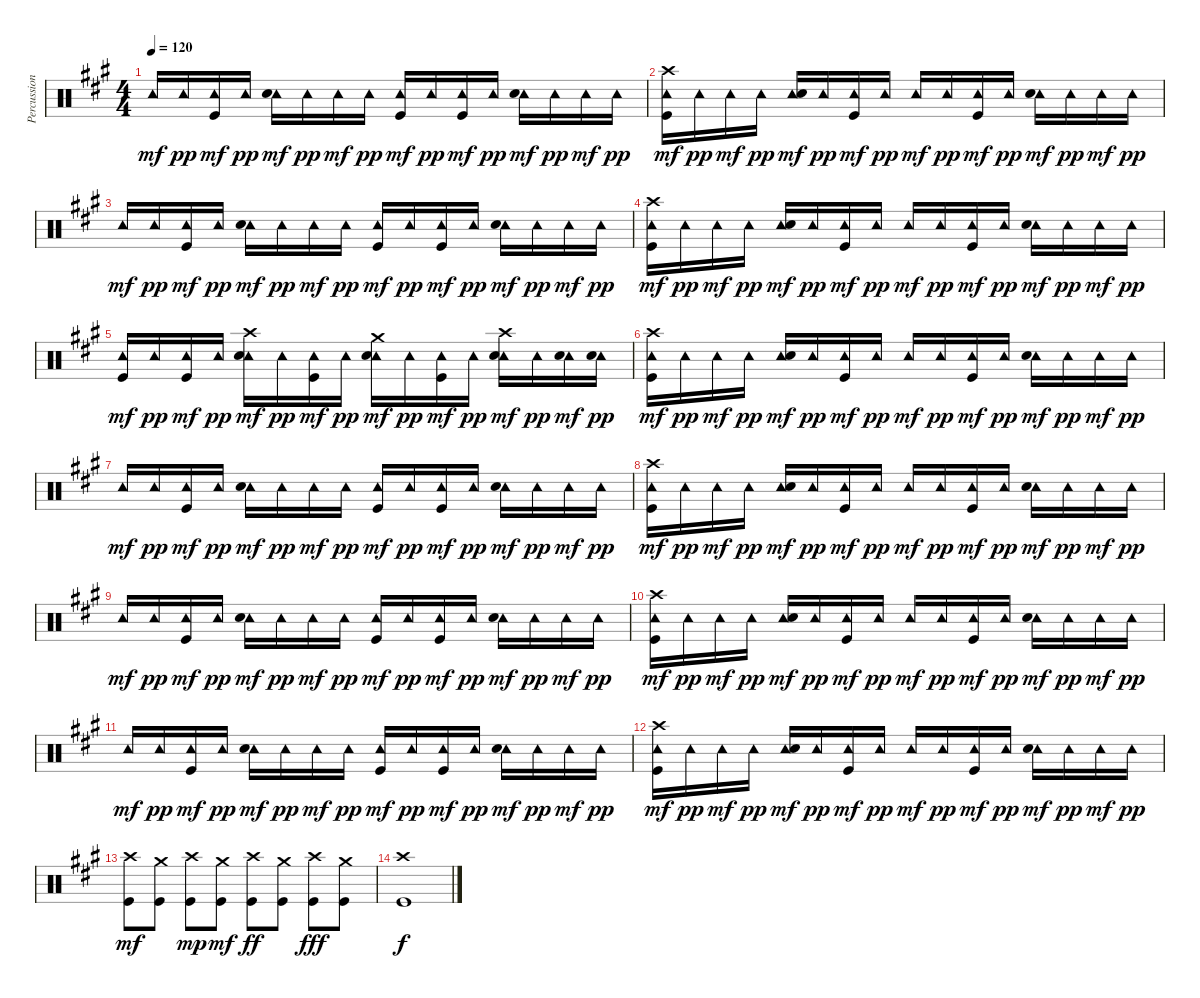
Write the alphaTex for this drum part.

\track ("Percussion" "Percussion") {instrument percussion}
\staff {score}
\articulation defaults
\ts (4 4)
\tempo 120
\clef neutral
\ks a "Tambourine (hit)".16{dy mf} "Tambourine (hit)".16{dy pp}
("Tambourine (hit)" "Kick (hit)").16{dy mf} "Tambourine (hit)".16{dy pp} ("Tambourine (hit)" "Electric Snare (hit)").16{dy mf} "Tambourine (hit)".16{dy pp} "Tambourine (hit)".16{dy mf} "Tambourine (hit)".16{dy pp} ("Tambourine (hit)" "Kick (hit)").16{dy mf} "Tambourine (hit)".16{dy pp} ("Tambourine (hit)" "Kick (hit)").16{dy mf} "Tambourine (hit)".16{dy pp} ("Tambourine (hit)" "Electric Snare (hit)").16{dy mf} "Tambourine (hit)".16{dy pp} "Tambourine (hit)".16{dy mf} "Tambourine (hit)".16{dy pp} |
("Crash high (hit)" "Tambourine (hit)" "Kick (hit)").16{dy mf} "Tambourine (hit)".16{dy pp} "Tambourine (hit)".16{dy mf} "Tambourine (hit)".16{dy pp} ("Tambourine (hit)" "Electric Snare (hit)").16{dy mf} "Tambourine (hit)".16{dy pp} ("Tambourine (hit)" "Kick (hit)").16{dy mf} "Tambourine (hit)".16{dy pp} "Tambourine (hit)".16{dy mf} "Tambourine (hit)".16{dy pp} ("Tambourine (hit)" "Kick (hit)").16{dy mf} "Tambourine (hit)".16{dy pp} ("Tambourine (hit)" "Electric Snare (hit)").16{dy mf} "Tambourine (hit)".16{dy pp} "Tambourine (hit)".16{dy mf} "Tambourine (hit)".16{dy pp} |
"Tambourine (hit)".16{dy mf} "Tambourine (hit)".16{dy pp} ("Tambourine (hit)" "Kick (hit)").16{dy mf} "Tambourine (hit)".16{dy pp} ("Tambourine (hit)" "Electric Snare (hit)").16{dy mf} "Tambourine (hit)".16{dy pp} "Tambourine (hit)".16{dy mf} "Tambourine (hit)".16{dy pp} ("Tambourine (hit)" "Kick (hit)").16{dy mf} "Tambourine (hit)".16{dy pp} ("Tambourine (hit)" "Kick (hit)").16{dy mf} "Tambourine (hit)".16{dy pp} ("Tambourine (hit)" "Electric Snare (hit)").16{dy mf} "Tambourine (hit)".16{dy pp} "Tambourine (hit)".16{dy mf} "Tambourine (hit)".16{dy pp} |
("Crash high (hit)" "Tambourine (hit)" "Kick (hit)").16{dy mf} "Tambourine (hit)".16{dy pp} "Tambourine (hit)".16{dy mf} "Tambourine (hit)".16{dy pp} ("Tambourine (hit)" "Electric Snare (hit)").16{dy mf} "Tambourine (hit)".16{dy pp} ("Tambourine (hit)" "Kick (hit)").16{dy mf} "Tambourine (hit)".16{dy pp} "Tambourine (hit)".16{dy mf} "Tambourine (hit)".16{dy pp} ("Tambourine (hit)" "Kick (hit)").16{dy mf} "Tambourine (hit)".16{dy pp} ("Tambourine (hit)" "Electric Snare (hit)").16{dy mf} "Tambourine (hit)".16{dy pp} "Tambourine (hit)".16{dy mf} "Tambourine (hit)".16{dy pp} |
("Tambourine (hit)" "Kick (hit)").16{dy mf} "Tambourine (hit)".16{dy pp} ("Tambourine (hit)" "Kick (hit)").16{dy mf} "Tambourine (hit)".16{dy pp} ("Crash high (hit)" "Tambourine (hit)" "Electric Snare (hit)").16{dy mf} "Tambourine (hit)".16{dy pp} ("Tambourine (hit)" "Kick (hit)").16{dy mf} "Tambourine (hit)".16{dy pp} ("Crash medium (hit)" "Tambourine (hit)" "Electric Snare (hit)").16{dy mf} "Tambourine (hit)".16{dy pp} ("Tambourine (hit)" "Kick (hit)").16{dy mf} "Tambourine (hit)".16{dy pp} ("Crash high (hit)" "Tambourine (hit)" "Electric Snare (hit)").16{dy mf} "Tambourine (hit)".16{dy pp} ("Tambourine (hit)" "Electric Snare (hit)").16{dy mf} ("Tambourine (hit)" "Electric Snare (hit)").16{dy pp} |
("Crash high (hit)" "Tambourine (hit)" "Kick (hit)").16{dy mf} "Tambourine (hit)".16{dy pp} "Tambourine (hit)".16{dy mf} "Tambourine (hit)".16{dy pp} ("Tambourine (hit)" "Electric Snare (hit)").16{dy mf} "Tambourine (hit)".16{dy pp} ("Tambourine (hit)" "Kick (hit)").16{dy mf} "Tambourine (hit)".16{dy pp} "Tambourine (hit)".16{dy mf} "Tambourine (hit)".16{dy pp} ("Tambourine (hit)" "Kick (hit)").16{dy mf} "Tambourine (hit)".16{dy pp} ("Tambourine (hit)" "Electric Snare (hit)").16{dy mf} "Tambourine (hit)".16{dy pp} "Tambourine (hit)".16{dy mf} "Tambourine (hit)".16{dy pp} |
"Tambourine (hit)".16{dy mf} "Tambourine (hit)".16{dy pp} ("Tambourine (hit)" "Kick (hit)").16{dy mf} "Tambourine (hit)".16{dy pp} ("Tambourine (hit)" "Electric Snare (hit)").16{dy mf} "Tambourine (hit)".16{dy pp} "Tambourine (hit)".16{dy mf} "Tambourine (hit)".16{dy pp} ("Tambourine (hit)" "Kick (hit)").16{dy mf} "Tambourine (hit)".16{dy pp} ("Tambourine (hit)" "Kick (hit)").16{dy mf} "Tambourine (hit)".16{dy pp} ("Tambourine (hit)" "Electric Snare (hit)").16{dy mf} "Tambourine (hit)".16{dy pp} "Tambourine (hit)".16{dy mf} "Tambourine (hit)".16{dy pp} |
("Crash high (hit)" "Tambourine (hit)" "Kick (hit)").16{dy mf} "Tambourine (hit)".16{dy pp} "Tambourine (hit)".16{dy mf} "Tambourine (hit)".16{dy pp} ("Tambourine (hit)" "Electric Snare (hit)").16{dy mf} "Tambourine (hit)".16{dy pp} ("Tambourine (hit)" "Kick (hit)").16{dy mf} "Tambourine (hit)".16{dy pp} "Tambourine (hit)".16{dy mf} "Tambourine (hit)".16{dy pp} ("Tambourine (hit)" "Kick (hit)").16{dy mf} "Tambourine (hit)".16{dy pp} ("Tambourine (hit)" "Electric Snare (hit)").16{dy mf} "Tambourine (hit)".16{dy pp} "Tambourine (hit)".16{dy mf} "Tambourine (hit)".16{dy pp} |
"Tambourine (hit)".16{dy mf} "Tambourine (hit)".16{dy pp} ("Tambourine (hit)" "Kick (hit)").16{dy mf} "Tambourine (hit)".16{dy pp} ("Tambourine (hit)" "Electric Snare (hit)").16{dy mf} "Tambourine (hit)".16{dy pp} "Tambourine (hit)".16{dy mf} "Tambourine (hit)".16{dy pp} ("Tambourine (hit)" "Kick (hit)").16{dy mf} "Tambourine (hit)".16{dy pp} ("Tambourine (hit)" "Kick (hit)").16{dy mf} "Tambourine (hit)".16{dy pp} ("Tambourine (hit)" "Electric Snare (hit)").16{dy mf} "Tambourine (hit)".16{dy pp} "Tambourine (hit)".16{dy mf} "Tambourine (hit)".16{dy pp} |
("Crash high (hit)" "Tambourine (hit)" "Kick (hit)").16{dy mf} "Tambourine (hit)".16{dy pp} "Tambourine (hit)".16{dy mf} "Tambourine (hit)".16{dy pp} ("Tambourine (hit)" "Electric Snare (hit)").16{dy mf} "Tambourine (hit)".16{dy pp} ("Tambourine (hit)" "Kick (hit)").16{dy mf} "Tambourine (hit)".16{dy pp} "Tambourine (hit)".16{dy mf} "Tambourine (hit)".16{dy pp} ("Tambourine (hit)" "Kick (hit)").16{dy mf} "Tambourine (hit)".16{dy pp} ("Tambourine (hit)" "Electric Snare (hit)").16{dy mf} "Tambourine (hit)".16{dy pp} "Tambourine (hit)".16{dy mf} "Tambourine (hit)".16{dy pp} |
"Tambourine (hit)".16{dy mf} "Tambourine (hit)".16{dy pp} ("Tambourine (hit)" "Kick (hit)").16{dy mf} "Tambourine (hit)".16{dy pp} ("Tambourine (hit)" "Electric Snare (hit)").16{dy mf} "Tambourine (hit)".16{dy pp} "Tambourine (hit)".16{dy mf} "Tambourine (hit)".16{dy pp} ("Tambourine (hit)" "Kick (hit)").16{dy mf} "Tambourine (hit)".16{dy pp} ("Tambourine (hit)" "Kick (hit)").16{dy mf} "Tambourine (hit)".16{dy pp} ("Tambourine (hit)" "Electric Snare (hit)").16{dy mf} "Tambourine (hit)".16{dy pp} "Tambourine (hit)".16{dy mf} "Tambourine (hit)".16{dy pp} |
("Crash high (hit)" "Tambourine (hit)" "Kick (hit)").16{dy mf} "Tambourine (hit)".16{dy pp} "Tambourine (hit)".16{dy mf} "Tambourine (hit)".16{dy pp} ("Tambourine (hit)" "Electric Snare (hit)").16{dy mf} "Tambourine (hit)".16{dy pp} ("Tambourine (hit)" "Kick (hit)").16{dy mf} "Tambourine (hit)".16{dy pp} "Tambourine (hit)".16{dy mf} "Tambourine (hit)".16{dy pp} ("Tambourine (hit)" "Kick (hit)").16{dy mf} "Tambourine (hit)".16{dy pp} ("Tambourine (hit)" "Electric Snare (hit)").16{dy mf} "Tambourine (hit)".16{dy pp} "Tambourine (hit)".16{dy mf} "Tambourine (hit)".16{dy pp} |
("Crash high (hit)" "Kick (hit)").8{dy mf} ("Crash medium (hit)" "Kick (hit)").8 ("Crash high (hit)" "Kick (hit)").8{dy mp} ("Crash medium (hit)" "Kick (hit)").8{dy mf} ("Crash high (hit)" "Kick (hit)").8{dy ff} ("Crash medium (hit)" "Kick (hit)").8 ("Crash high (hit)" "Kick (hit)").8{dy fff} ("Crash medium (hit)" "Kick (hit)").8 |
("Crash high (hit)" "Kick (hit)").1{dy f}
